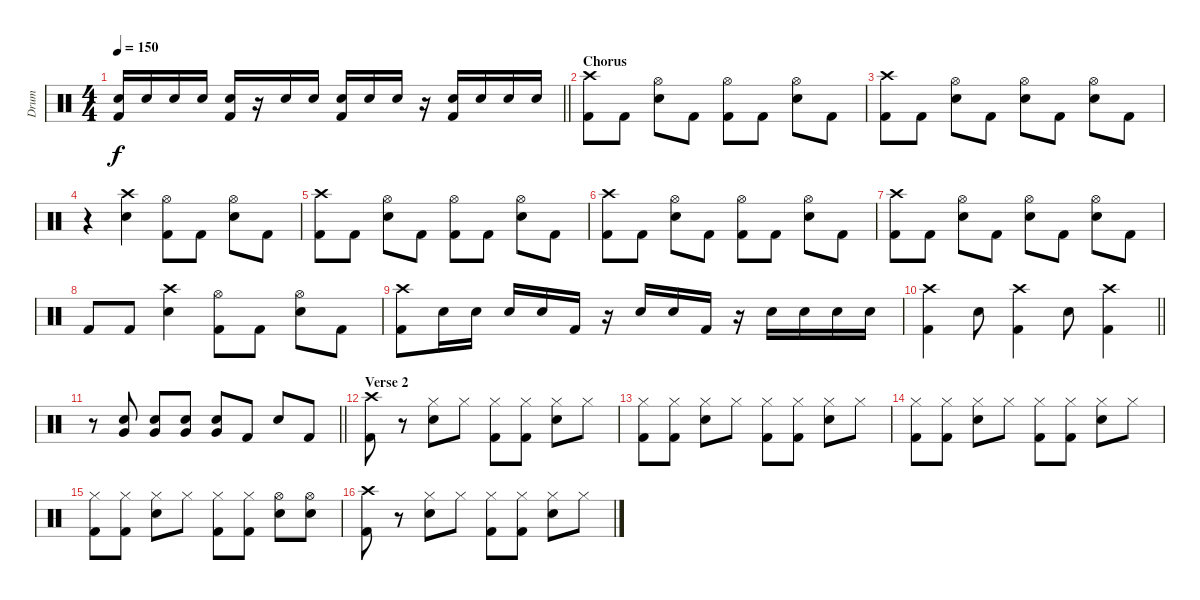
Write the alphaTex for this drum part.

\track ("Drum" "Drum") {instrument percussion}
\staff {score}
\articulation defaults
\ts (4 4)
\tempo 150
\clef neutral
\barLineRight lightlight
\ks c
("Electric Snare (hit)" "Kick (hit) 2").16{dy f} "Electric Snare (hit)".16 "Electric Snare (hit)".16 "Electric Snare (hit)".16 ("Electric Snare (hit)" "Kick (hit) 2").16 r.16 "Electric Snare (hit)".16 "Electric Snare (hit)".16 ("Electric Snare (hit)" "Kick (hit) 2").16 "Electric Snare (hit)".16 "Electric Snare (hit)".16 r.16 ("Electric Snare (hit)" "Kick (hit) 2").16 "Electric Snare (hit)".16 "Electric Snare (hit)".16 "Electric Snare (hit)".16 |
\section ("" "Chorus")
("Kick (hit) 2" "Crash high (hit)").8 "Kick (hit) 2".8 ("Electric Snare (hit)" "Hi-Hat (open)").8 "Kick (hit) 2".8 ("Kick (hit) 2" "Hi-Hat (open)").8 "Kick (hit) 2".8 ("Electric Snare (hit)" "Hi-Hat (open)").8 "Kick (hit) 2".8 |
("Kick (hit) 2" "Crash high (hit)").8 "Kick (hit) 2".8 ("Electric Snare (hit)" "Hi-Hat (open)").8 "Kick (hit) 2".8 ("Electric Snare (hit)" "Hi-Hat (open)").8 "Kick (hit) 2".8 ("Electric Snare (hit)" "Hi-Hat (open)").8 "Kick (hit) 2".8 |
r.4 ("Electric Snare (hit)" "Crash high (hit)").4 ("Kick (hit) 2" "Hi-Hat (open)").8 "Kick (hit) 2".8 ("Electric Snare (hit)" "Hi-Hat (open)").8 "Kick (hit) 2".8 |
("Kick (hit) 2" "Crash high (hit)").8 "Kick (hit) 2".8 ("Electric Snare (hit)" "Hi-Hat (open)").8 "Kick (hit) 2".8 ("Kick (hit) 2" "Hi-Hat (open)").8 "Kick (hit) 2".8 ("Electric Snare (hit)" "Hi-Hat (open)").8 "Kick (hit) 2".8 |
("Kick (hit) 2" "Crash high (hit)").8 "Kick (hit) 2".8 ("Electric Snare (hit)" "Hi-Hat (open)").8 "Kick (hit) 2".8 ("Kick (hit) 2" "Hi-Hat (open)").8 "Kick (hit) 2".8 ("Electric Snare (hit)" "Hi-Hat (open)").8 "Kick (hit) 2".8 |
("Kick (hit) 2" "Crash high (hit)").8 "Kick (hit) 2".8 ("Electric Snare (hit)" "Hi-Hat (open)").8 "Kick (hit) 2".8 ("Electric Snare (hit)" "Hi-Hat (open)").8 "Kick (hit) 2".8 ("Electric Snare (hit)" "Hi-Hat (open)").8 "Kick (hit) 2".8 |
"Kick (hit) 2".8 "Kick (hit) 2".8 ("Electric Snare (hit)" "Crash high (hit)").4 ("Kick (hit) 2" "Hi-Hat (open)").8 "Kick (hit) 2".8 ("Electric Snare (hit)" "Hi-Hat (open)").8 "Kick (hit) 2".8 |
("Kick (hit) 2" "Crash high (hit)").8 "Electric Snare (hit)".16 "Electric Snare (hit)".16 "Electric Snare (hit)".16 "Electric Snare (hit)".16 "Kick (hit) 2".16 r.16 "Electric Snare (hit)".16 "Electric Snare (hit)".16 "Kick (hit) 2".16 r.16 "Electric Snare (hit)".16 "Electric Snare (hit)".16 "Electric Snare (hit)".16 "Electric Snare (hit)".16 |
\barLineRight lightlight
("Kick (hit) 2" "Crash high (hit)").4 "Electric Snare (hit)".8 ("Kick (hit) 2" "Crash high (hit)").4 "Electric Snare (hit)".8 ("Kick (hit) 2" "Crash high (hit)").4 |
\barLineRight lightlight
r.8 ("Electric Snare (hit)" "Very Low Tom (hit)").8 ("Electric Snare (hit)" "Very Low Tom (hit)").8 ("Electric Snare (hit)" "Very Low Tom (hit)").8 ("Electric Snare (hit)" "Very Low Tom (hit)").8 "Kick (hit) 2".8 "Electric Snare (hit)".8 "Kick (hit) 2".8 |
\section ("" "Verse 2")
("Kick (hit) 2" "Crash high (hit)").8 r.8 ("Electric Snare (hit)" "Hi-Hat (closed)").8 "Hi-Hat (closed)".8 ("Kick (hit) 2" "Hi-Hat (closed)").8 ("Kick (hit) 2" "Hi-Hat (closed)").8 ("Electric Snare (hit)" "Hi-Hat (closed)").8 "Hi-Hat (closed)".8 |
("Kick (hit) 2" "Hi-Hat (closed)").8 ("Kick (hit) 2" "Hi-Hat (closed)").8 ("Electric Snare (hit)" "Hi-Hat (closed)").8 "Hi-Hat (closed)".8 ("Kick (hit) 2" "Hi-Hat (closed)").8 ("Kick (hit) 2" "Hi-Hat (closed)").8 ("Electric Snare (hit)" "Hi-Hat (closed)").8 "Hi-Hat (closed)".8 |
("Kick (hit) 2" "Hi-Hat (closed)").8 ("Kick (hit) 2" "Hi-Hat (closed)").8 ("Electric Snare (hit)" "Hi-Hat (closed)").8 "Hi-Hat (closed)".8 ("Kick (hit) 2" "Hi-Hat (closed)").8 ("Kick (hit) 2" "Hi-Hat (closed)").8 ("Electric Snare (hit)" "Hi-Hat (closed)").8 "Hi-Hat (closed)".8 |
("Kick (hit) 2" "Hi-Hat (closed)").8 ("Kick (hit) 2" "Hi-Hat (closed)").8 ("Electric Snare (hit)" "Hi-Hat (closed)").8 "Hi-Hat (closed)".8 ("Kick (hit) 2" "Hi-Hat (closed)").8 ("Kick (hit) 2" "Hi-Hat (closed)").8 ("Electric Snare (hit)" "Hi-Hat (open)").8 ("Electric Snare (hit)" "Hi-Hat (open)").8 |
("Kick (hit) 2" "Crash high (hit)").8 r.8 ("Electric Snare (hit)" "Hi-Hat (closed)").8 "Hi-Hat (closed)".8 ("Kick (hit) 2" "Hi-Hat (closed)").8 ("Kick (hit) 2" "Hi-Hat (closed)").8 ("Electric Snare (hit)" "Hi-Hat (closed)").8 "Hi-Hat (closed)".8
